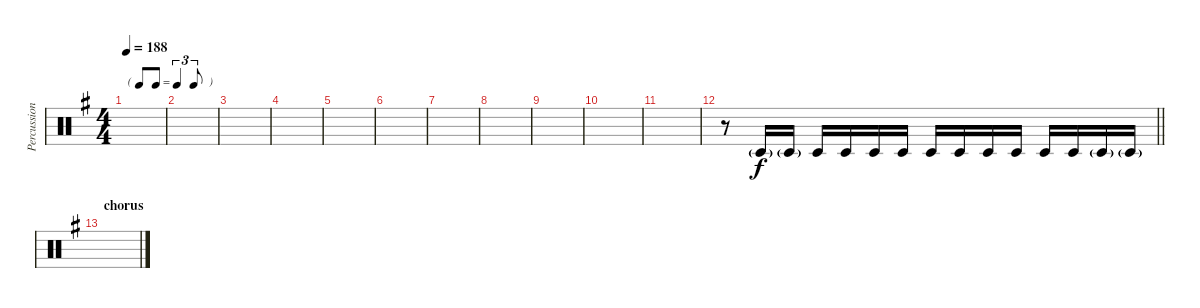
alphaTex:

\track ("Percussion" "Percussion") {instrument percussion}
\staff {score}
\articulation defaults
\ts (4 4)
\tf triplet8th
\tempo 188
\clef neutral
\ks g
|
|
|
|
|
|
|
|
|
|
|
\barLineRight lightlight
r.8 "Timbale low (hit)"{g}.16 "Timbale low (hit)"{g}.16 "Timbale low (hit)".16 "Timbale low (hit)".16 "Timbale low (hit)".16 "Timbale low (hit)".16 "Timbale low (hit)".16 "Timbale low (hit)".16 "Timbale low (hit)".16 "Timbale low (hit)".16 "Timbale low (hit)".16 "Timbale low (hit)".16 "Timbale low (hit)"{g}.16 "Timbale low (hit)"{g}.16 |
\section ("" "chorus")
